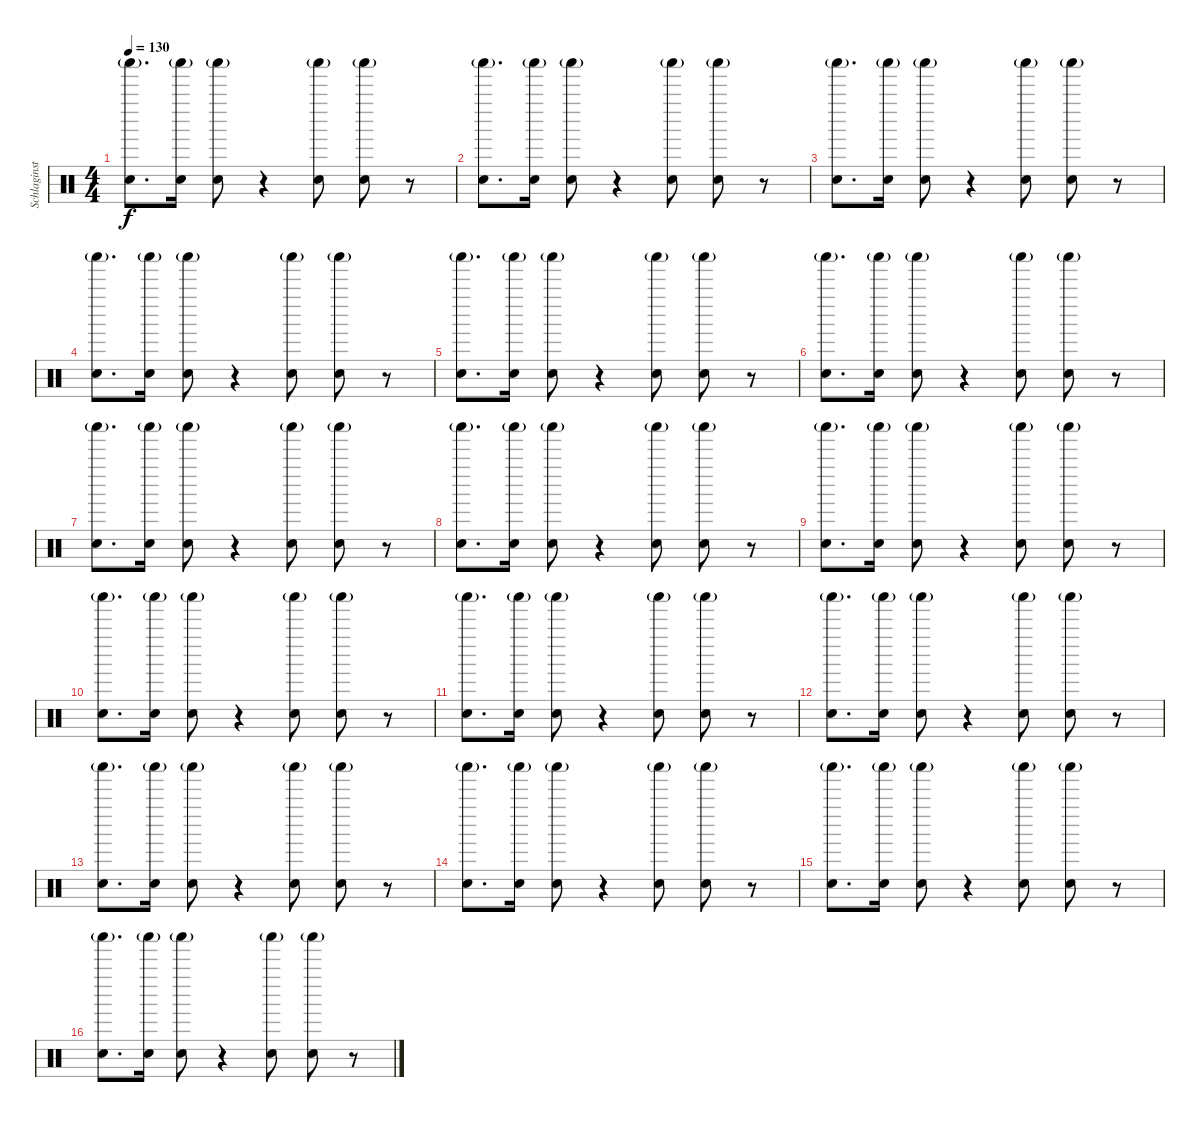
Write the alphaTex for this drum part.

\track ("Schlaginstrumente - Auswahl" "Schlaginst") {instrument percussion}
\staff {score}
\articulation defaults
\ts (4 4)
\tempo 130
\clef neutral
\ks c
("Shaker (hit)"{g} "Hand Clap (hit)").8{d dy f} ("Shaker (hit)"{g} "Hand Clap (hit)").16 ("Shaker (hit)"{g} "Hand Clap (hit)").8 r.4 ("Shaker (hit)"{g} "Hand Clap (hit)").8 ("Shaker (hit)"{g} "Hand Clap (hit)").8 r.8 |
("Shaker (hit)"{g} "Hand Clap (hit)").8{d} ("Shaker (hit)"{g} "Hand Clap (hit)").16 ("Shaker (hit)"{g} "Hand Clap (hit)").8 r.4 ("Shaker (hit)"{g} "Hand Clap (hit)").8 ("Shaker (hit)"{g} "Hand Clap (hit)").8 r.8 |
("Shaker (hit)"{g} "Hand Clap (hit)").8{d} ("Shaker (hit)"{g} "Hand Clap (hit)").16 ("Shaker (hit)"{g} "Hand Clap (hit)").8 r.4 ("Shaker (hit)"{g} "Hand Clap (hit)").8 ("Shaker (hit)"{g} "Hand Clap (hit)").8 r.8 |
("Shaker (hit)"{g} "Hand Clap (hit)").8{d} ("Shaker (hit)"{g} "Hand Clap (hit)").16 ("Shaker (hit)"{g} "Hand Clap (hit)").8 r.4 ("Shaker (hit)"{g} "Hand Clap (hit)").8 ("Shaker (hit)"{g} "Hand Clap (hit)").8 r.8 |
("Shaker (hit)"{g} "Hand Clap (hit)").8{d} ("Shaker (hit)"{g} "Hand Clap (hit)").16 ("Shaker (hit)"{g} "Hand Clap (hit)").8 r.4 ("Shaker (hit)"{g} "Hand Clap (hit)").8 ("Shaker (hit)"{g} "Hand Clap (hit)").8 r.8 |
("Shaker (hit)"{g} "Hand Clap (hit)").8{d} ("Shaker (hit)"{g} "Hand Clap (hit)").16 ("Shaker (hit)"{g} "Hand Clap (hit)").8 r.4 ("Shaker (hit)"{g} "Hand Clap (hit)").8 ("Shaker (hit)"{g} "Hand Clap (hit)").8 r.8 |
("Shaker (hit)"{g} "Hand Clap (hit)").8{d} ("Shaker (hit)"{g} "Hand Clap (hit)").16 ("Shaker (hit)"{g} "Hand Clap (hit)").8 r.4 ("Shaker (hit)"{g} "Hand Clap (hit)").8 ("Shaker (hit)"{g} "Hand Clap (hit)").8 r.8 |
("Shaker (hit)"{g} "Hand Clap (hit)").8{d} ("Shaker (hit)"{g} "Hand Clap (hit)").16 ("Shaker (hit)"{g} "Hand Clap (hit)").8 r.4 ("Shaker (hit)"{g} "Hand Clap (hit)").8 ("Shaker (hit)"{g} "Hand Clap (hit)").8 r.8 |
("Shaker (hit)"{g} "Hand Clap (hit)").8{d} ("Shaker (hit)"{g} "Hand Clap (hit)").16 ("Shaker (hit)"{g} "Hand Clap (hit)").8 r.4 ("Shaker (hit)"{g} "Hand Clap (hit)").8 ("Shaker (hit)"{g} "Hand Clap (hit)").8 r.8 |
("Shaker (hit)"{g} "Hand Clap (hit)").8{d} ("Shaker (hit)"{g} "Hand Clap (hit)").16 ("Shaker (hit)"{g} "Hand Clap (hit)").8 r.4 ("Shaker (hit)"{g} "Hand Clap (hit)").8 ("Shaker (hit)"{g} "Hand Clap (hit)").8 r.8 |
("Shaker (hit)"{g} "Hand Clap (hit)").8{d} ("Shaker (hit)"{g} "Hand Clap (hit)").16 ("Shaker (hit)"{g} "Hand Clap (hit)").8 r.4 ("Shaker (hit)"{g} "Hand Clap (hit)").8 ("Shaker (hit)"{g} "Hand Clap (hit)").8 r.8 |
("Shaker (hit)"{g} "Hand Clap (hit)").8{d} ("Shaker (hit)"{g} "Hand Clap (hit)").16 ("Shaker (hit)"{g} "Hand Clap (hit)").8 r.4 ("Shaker (hit)"{g} "Hand Clap (hit)").8 ("Shaker (hit)"{g} "Hand Clap (hit)").8 r.8 |
("Shaker (hit)"{g} "Hand Clap (hit)").8{d} ("Shaker (hit)"{g} "Hand Clap (hit)").16 ("Shaker (hit)"{g} "Hand Clap (hit)").8 r.4 ("Shaker (hit)"{g} "Hand Clap (hit)").8 ("Shaker (hit)"{g} "Hand Clap (hit)").8 r.8 |
("Shaker (hit)"{g} "Hand Clap (hit)").8{d} ("Shaker (hit)"{g} "Hand Clap (hit)").16 ("Shaker (hit)"{g} "Hand Clap (hit)").8 r.4 ("Shaker (hit)"{g} "Hand Clap (hit)").8 ("Shaker (hit)"{g} "Hand Clap (hit)").8 r.8 |
("Shaker (hit)"{g} "Hand Clap (hit)").8{d} ("Shaker (hit)"{g} "Hand Clap (hit)").16 ("Shaker (hit)"{g} "Hand Clap (hit)").8 r.4 ("Shaker (hit)"{g} "Hand Clap (hit)").8 ("Shaker (hit)"{g} "Hand Clap (hit)").8 r.8 |
("Shaker (hit)"{g} "Hand Clap (hit)").8{d} ("Shaker (hit)"{g} "Hand Clap (hit)").16 ("Shaker (hit)"{g} "Hand Clap (hit)").8 r.4 ("Shaker (hit)"{g} "Hand Clap (hit)").8 ("Shaker (hit)"{g} "Hand Clap (hit)").8 r.8
